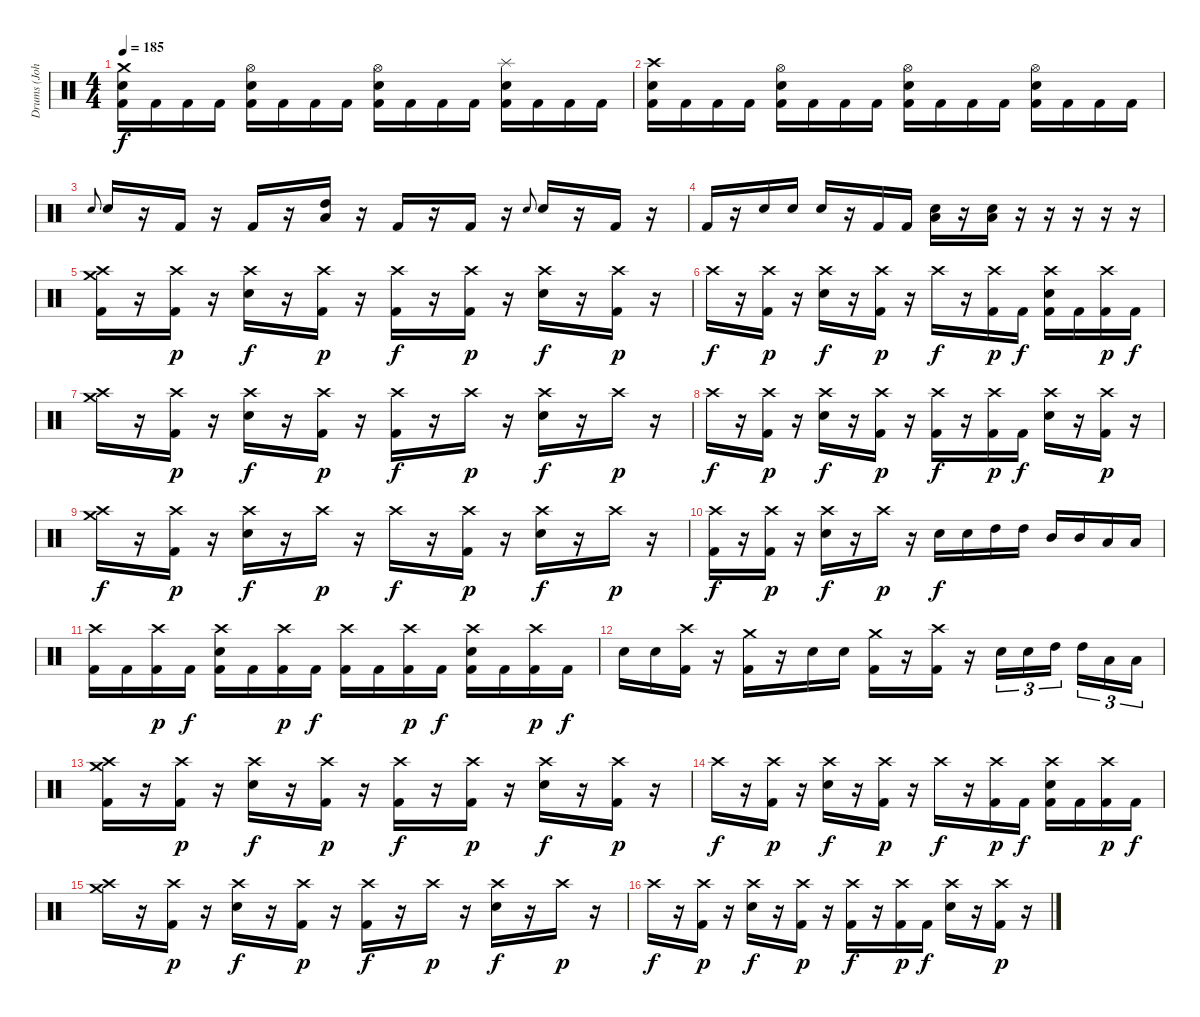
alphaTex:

\track ("Drums (Johno)" "Drums (Joh") {instrument percussion}
\staff {score}
\articulation defaults
\ts (4 4)
\tempo 185
\clef neutral
\ks c
("Crash medium (hit)" "Electric Snare (hit)" "Kick (hit) 2").16{dy f} "Kick (hit) 2".16 "Kick (hit) 2".16 "Kick (hit) 2".16 ("Hi-Hat (open)" "Electric Snare (hit)" "Kick (hit) 2").16 "Kick (hit) 2".16 "Kick (hit) 2".16 "Kick (hit) 2".16 ("Hi-Hat (open)" "Electric Snare (hit)" "Kick (hit) 2").16 "Kick (hit) 2".16 "Kick (hit) 2".16 "Kick (hit) 2".16 ("Splash (hit)" "Electric Snare (hit)" "Kick (hit) 2").16 "Kick (hit) 2".16 "Kick (hit) 2".16 "Kick (hit) 2".16 |
("Crash high (hit)" "Electric Snare (hit)" "Kick (hit) 2").16 "Kick (hit) 2".16 "Kick (hit) 2".16 "Kick (hit) 2".16 ("Hi-Hat (open)" "Electric Snare (hit)" "Kick (hit) 2").16 "Kick (hit) 2".16 "Kick (hit) 2".16 "Kick (hit) 2".16 ("Hi-Hat (open)" "Electric Snare (hit)" "Kick (hit) 2").16 "Kick (hit) 2".16 "Kick (hit) 2".16 "Kick (hit) 2".16 ("Hi-Hat (open)" "Electric Snare (hit)" "Kick (hit) 2").16 "Kick (hit) 2".16 "Kick (hit) 2".16 "Kick (hit) 2".16 |
"Electric Snare (hit)".8{gr onbeat} "Electric Snare (hit)".16 r.16 "Kick (hit) 2".16 r.16 "Kick (hit) 2".16 r.16 ("Low Floor Tom (hit)" "High Tom (hit)").16 r.16 "Kick (hit) 2".16 r.16 "Kick (hit) 2".16 r.16 "Electric Snare (hit)".8{gr onbeat} "Electric Snare (hit)".16 r.16 "Kick (hit) 2".16 r.16 |
"Kick (hit) 2".16 r.16 "Electric Snare (hit)".16 "Electric Snare (hit)".16 "Electric Snare (hit)".16 r.16 "Kick (hit) 2".16 "Kick (hit) 2".16 ("Low Floor Tom (hit)" "Electric Snare (hit)").16 r.16 ("Low Floor Tom (hit)" "Electric Snare (hit)").16 r.16 r.16 r.16 r.16 r.16 |
("Crash medium (hit)" "Crash high (hit)" "Kick (hit) 2").16 r.16 ("Crash high (hit)" "Kick (hit) 2").16{dy p} r.16 ("Crash high (hit)" "Electric Snare (hit)").16{dy f} r.16 ("Crash high (hit)" "Kick (hit) 2").16{dy p} r.16 ("Crash high (hit)" "Kick (hit) 2").16{dy f} r.16 ("Crash high (hit)" "Kick (hit) 2").16{dy p} r.16 ("Crash high (hit)" "Electric Snare (hit)").16{dy f} r.16 ("Crash high (hit)" "Kick (hit) 2").16{dy p} r.16 |
"Crash high (hit)".16{dy f} r.16 ("Crash high (hit)" "Kick (hit) 2").16{dy p} r.16 ("Crash high (hit)" "Electric Snare (hit)").16{dy f} r.16 ("Crash high (hit)" "Kick (hit) 2").16{dy p} r.16 "Crash high (hit)".16{dy f} r.16 ("Crash high (hit)" "Kick (hit) 2").16{dy p} "Kick (hit) 2".16{dy f} ("Crash high (hit)" "Electric Snare (hit)" "Kick (hit) 2").16 "Kick (hit) 2".16 ("Crash high (hit)" "Kick (hit) 2").16{dy p} "Kick (hit) 2".16{dy f} |
("Crash medium (hit)" "Crash high (hit)").16 r.16 ("Crash high (hit)" "Kick (hit) 2").16{dy p} r.16 ("Crash high (hit)" "Electric Snare (hit)").16{dy f} r.16 ("Crash high (hit)" "Kick (hit) 2").16{dy p} r.16 ("Crash high (hit)" "Kick (hit) 2").16{dy f} r.16 "Crash high (hit)".16{dy p} r.16 ("Crash high (hit)" "Electric Snare (hit)").16{dy f} r.16 "Crash high (hit)".16{dy p} r.16 |
"Crash high (hit)".16{dy f} r.16 ("Crash high (hit)" "Kick (hit) 2").16{dy p} r.16 ("Crash high (hit)" "Electric Snare (hit)").16{dy f} r.16 ("Crash high (hit)" "Kick (hit) 2").16{dy p} r.16 ("Crash high (hit)" "Kick (hit) 2").16{dy f} r.16 ("Crash high (hit)" "Kick (hit) 2").16{dy p} "Kick (hit) 2".16{dy f} ("Crash high (hit)" "Electric Snare (hit)").16 r.16 ("Crash high (hit)" "Kick (hit) 2").16{dy p} r.16 |
("Crash medium (hit)" "Crash high (hit)").16{dy f} r.16 ("Crash high (hit)" "Kick (hit) 2").16{dy p} r.16 ("Crash high (hit)" "Electric Snare (hit)").16{dy f} r.16 "Crash high (hit)".16{dy p} r.16 "Crash high (hit)".16{dy f} r.16 ("Crash high (hit)" "Kick (hit) 2").16{dy p} r.16 ("Crash high (hit)" "Electric Snare (hit)").16{dy f} r.16 "Crash high (hit)".16{dy p} r.16 |
("Crash high (hit)" "Kick (hit) 2").16{dy f} r.16 ("Crash high (hit)" "Kick (hit) 2").16{dy p} r.16 ("Crash high (hit)" "Electric Snare (hit)").16{dy f} r.16 "Crash high (hit)".16{dy p} r.16 "Electric Snare (hit)".16{dy f} "Electric Snare (hit)".16 "High Tom (hit)".16 "High Tom (hit)".16 "Mid Tom (hit)".16 "Mid Tom (hit)".16 "Low Floor Tom (hit)".16 "Low Floor Tom (hit)".16 |
("Crash high (hit)" "Kick (hit) 2").16 "Kick (hit) 2".16 ("Crash high (hit)" "Kick (hit) 2").16{dy p} "Kick (hit) 2".16{dy f} ("Crash high (hit)" "Electric Snare (hit)" "Kick (hit) 2").16 "Kick (hit) 2".16 ("Crash high (hit)" "Kick (hit) 2").16{dy p} "Kick (hit) 2".16{dy f} ("Crash high (hit)" "Kick (hit) 2").16 "Kick (hit) 2".16 ("Crash high (hit)" "Kick (hit) 2").16{dy p} "Kick (hit) 2".16{dy f} ("Crash high (hit)" "Electric Snare (hit)" "Kick (hit) 2").16 "Kick (hit) 2".16 ("Crash high (hit)" "Kick (hit) 2").16{dy p} "Kick (hit) 2".16{dy f} |
"Electric Snare (hit)".16 "Electric Snare (hit)".16 ("Crash high (hit)" "Kick (hit) 2").16 r.16 ("Crash medium (hit)" "Kick (hit) 2").16 r.16 "Electric Snare (hit)".16 "Electric Snare (hit)".16 ("Crash medium (hit)" "Kick (hit) 2").16 r.16 ("Crash high (hit)" "Kick (hit) 2").16 r.16 "Electric Snare (hit)".16{tu (3 2)} "Electric Snare (hit)".16{tu (3 2)} "High Tom (hit)".16{tu (3 2) beam splitsecondary} "High Tom (hit)".16{tu (3 2)} "Low Floor Tom (hit)".16{tu (3 2)} "Low Floor Tom (hit)".16{tu (3 2)} |
("Crash medium (hit)" "Crash high (hit)" "Kick (hit) 2").16 r.16 ("Crash high (hit)" "Kick (hit) 2").16{dy p} r.16 ("Crash high (hit)" "Electric Snare (hit)").16{dy f} r.16 ("Crash high (hit)" "Kick (hit) 2").16{dy p} r.16 ("Crash high (hit)" "Kick (hit) 2").16{dy f} r.16 ("Crash high (hit)" "Kick (hit) 2").16{dy p} r.16 ("Crash high (hit)" "Electric Snare (hit)").16{dy f} r.16 ("Crash high (hit)" "Kick (hit) 2").16{dy p} r.16 |
"Crash high (hit)".16{dy f} r.16 ("Crash high (hit)" "Kick (hit) 2").16{dy p} r.16 ("Crash high (hit)" "Electric Snare (hit)").16{dy f} r.16 ("Crash high (hit)" "Kick (hit) 2").16{dy p} r.16 "Crash high (hit)".16{dy f} r.16 ("Crash high (hit)" "Kick (hit) 2").16{dy p} "Kick (hit) 2".16{dy f} ("Crash high (hit)" "Electric Snare (hit)" "Kick (hit) 2").16 "Kick (hit) 2".16 ("Crash high (hit)" "Kick (hit) 2").16{dy p} "Kick (hit) 2".16{dy f} |
("Crash medium (hit)" "Crash high (hit)").16 r.16 ("Crash high (hit)" "Kick (hit) 2").16{dy p} r.16 ("Crash high (hit)" "Electric Snare (hit)").16{dy f} r.16 ("Crash high (hit)" "Kick (hit) 2").16{dy p} r.16 ("Crash high (hit)" "Kick (hit) 2").16{dy f} r.16 "Crash high (hit)".16{dy p} r.16 ("Crash high (hit)" "Electric Snare (hit)").16{dy f} r.16 "Crash high (hit)".16{dy p} r.16 |
"Crash high (hit)".16{dy f} r.16 ("Crash high (hit)" "Kick (hit) 2").16{dy p} r.16 ("Crash high (hit)" "Electric Snare (hit)").16{dy f} r.16 ("Crash high (hit)" "Kick (hit) 2").16{dy p} r.16 ("Crash high (hit)" "Kick (hit) 2").16{dy f} r.16 ("Crash high (hit)" "Kick (hit) 2").16{dy p} "Kick (hit) 2".16{dy f} ("Crash high (hit)" "Electric Snare (hit)").16 r.16 ("Crash high (hit)" "Kick (hit) 2").16{dy p} r.16
